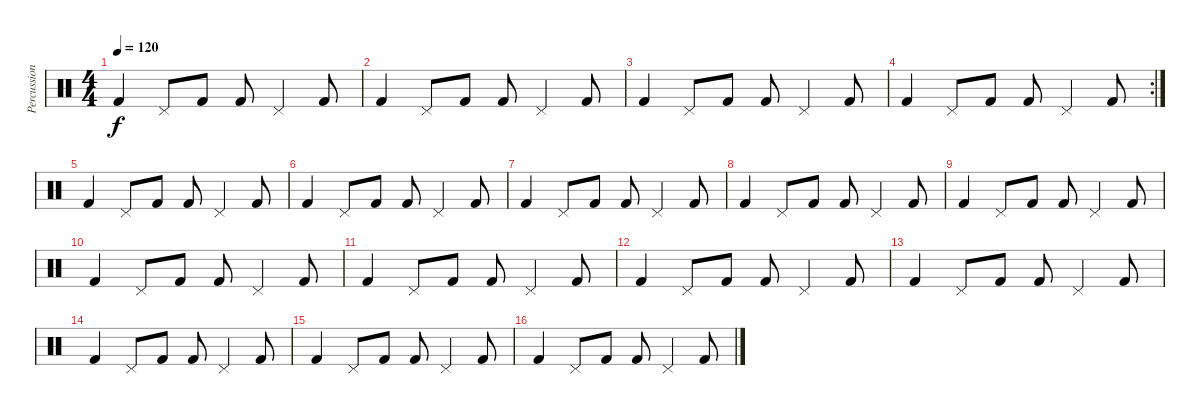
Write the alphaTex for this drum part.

\track ("Percussions" "Percussion") {instrument percussion}
\staff {score}
\articulation defaults
\ts (4 4)
\tempo 120
\clef neutral
\ks c "Kick (hit) 2".4{dy f} "Pedal Hi-Hat (hit)".8 "Kick (hit) 2".8 "Kick (hit) 2".8 "Pedal Hi-Hat (hit)".4 "Kick (hit) 2".8
|
"Kick (hit) 2".4 "Pedal Hi-Hat (hit)".8 "Kick (hit) 2".8 "Kick (hit) 2".8 "Pedal Hi-Hat (hit)".4 "Kick (hit) 2".8 |
"Kick (hit) 2".4 "Pedal Hi-Hat (hit)".8 "Kick (hit) 2".8 "Kick (hit) 2".8 "Pedal Hi-Hat (hit)".4 "Kick (hit) 2".8 |
\rc 2 "Kick (hit) 2".4 "Pedal Hi-Hat (hit)".8 "Kick (hit) 2".8 "Kick (hit) 2".8 "Pedal Hi-Hat (hit)".4 "Kick (hit) 2".8
|
"Kick (hit) 2".4 "Pedal Hi-Hat (hit)".8 "Kick (hit) 2".8 "Kick (hit) 2".8 "Pedal Hi-Hat (hit)".4 "Kick (hit) 2".8 |
"Kick (hit) 2".4 "Pedal Hi-Hat (hit)".8 "Kick (hit) 2".8 "Kick (hit) 2".8 "Pedal Hi-Hat (hit)".4 "Kick (hit) 2".8 |
"Kick (hit) 2".4 "Pedal Hi-Hat (hit)".8 "Kick (hit) 2".8 "Kick (hit) 2".8 "Pedal Hi-Hat (hit)".4 "Kick (hit) 2".8 |
"Kick (hit) 2".4 "Pedal Hi-Hat (hit)".8 "Kick (hit) 2".8 "Kick (hit) 2".8 "Pedal Hi-Hat (hit)".4 "Kick (hit) 2".8 |
"Kick (hit) 2".4 "Pedal Hi-Hat (hit)".8 "Kick (hit) 2".8 "Kick (hit) 2".8 "Pedal Hi-Hat (hit)".4 "Kick (hit) 2".8 |
"Kick (hit) 2".4 "Pedal Hi-Hat (hit)".8 "Kick (hit) 2".8 "Kick (hit) 2".8 "Pedal Hi-Hat (hit)".4 "Kick (hit) 2".8 |
"Kick (hit) 2".4 "Pedal Hi-Hat (hit)".8 "Kick (hit) 2".8 "Kick (hit) 2".8 "Pedal Hi-Hat (hit)".4 "Kick (hit) 2".8 |
"Kick (hit) 2".4 "Pedal Hi-Hat (hit)".8 "Kick (hit) 2".8 "Kick (hit) 2".8 "Pedal Hi-Hat (hit)".4 "Kick (hit) 2".8 |
"Kick (hit) 2".4 "Pedal Hi-Hat (hit)".8 "Kick (hit) 2".8 "Kick (hit) 2".8 "Pedal Hi-Hat (hit)".4 "Kick (hit) 2".8 |
"Kick (hit) 2".4 "Pedal Hi-Hat (hit)".8 "Kick (hit) 2".8 "Kick (hit) 2".8 "Pedal Hi-Hat (hit)".4 "Kick (hit) 2".8 |
"Kick (hit) 2".4 "Pedal Hi-Hat (hit)".8 "Kick (hit) 2".8 "Kick (hit) 2".8 "Pedal Hi-Hat (hit)".4 "Kick (hit) 2".8 |
"Kick (hit) 2".4 "Pedal Hi-Hat (hit)".8 "Kick (hit) 2".8 "Kick (hit) 2".8 "Pedal Hi-Hat (hit)".4 "Kick (hit) 2".8
